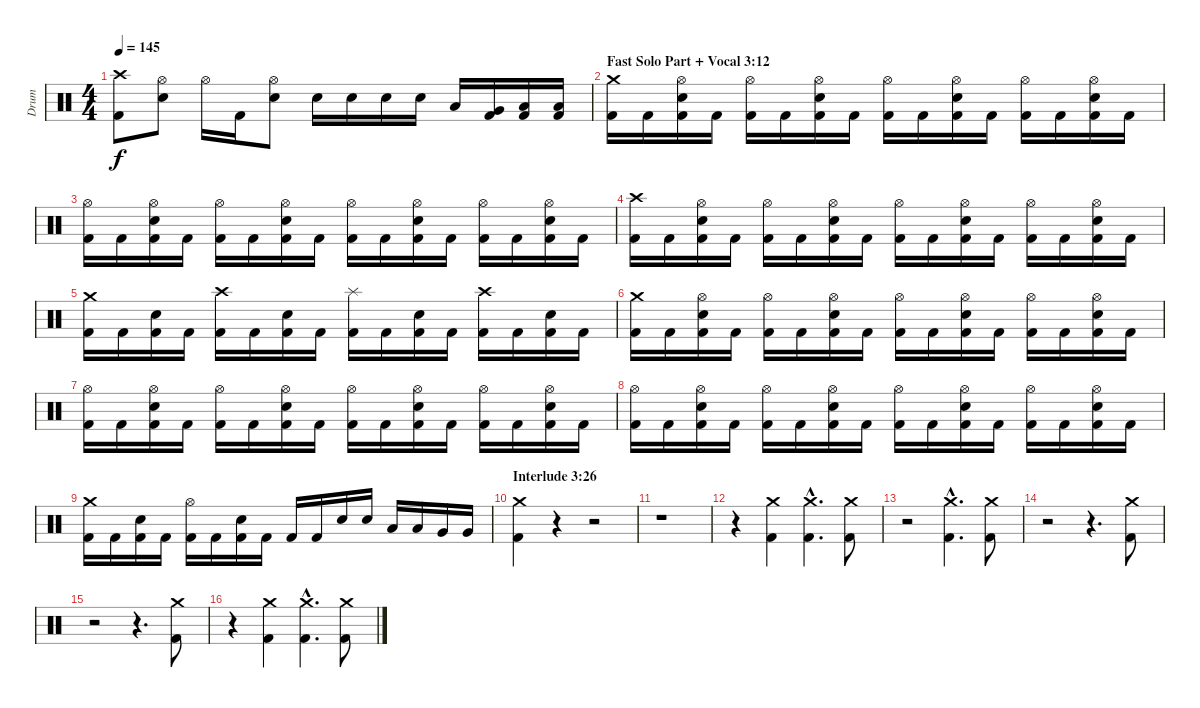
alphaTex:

\track ("Drum" "Drum") {instrument percussion}
\staff {score}
\articulation defaults
\ts (4 4)
\tempo 145
\clef neutral
\ks c
("Crash high (hit)" "Kick (hit) 2").8{dy f} ("Hi-Hat (open)" "Snare (hit) 2").8 "Hi-Hat (open)".16 "Kick (hit) 2".16 ("Hi-Hat (open)" "Snare (hit) 2").8 "Snare (hit) 2".16 "Snare (hit) 2".16 "Snare (hit) 2".16 "Snare (hit) 2".16 "Low Tom (hit)".16 ("Very Low Tom (hit)" "Kick (hit) 2").16 ("Low Floor Tom (hit)" "Kick (hit) 2").16 ("Low Floor Tom (hit)" "Kick (hit) 2").16 |
\section ("" "Fast Solo Part + Vocal 3:12")
("Crash medium (hit)" "Kick (hit) 2").16 "Kick (hit) 2".16 ("Hi-Hat (open)" "Snare (hit) 2" "Kick (hit) 2").16 "Kick (hit) 2".16 ("Hi-Hat (open)" "Kick (hit) 2").16 "Kick (hit) 2".16 ("Hi-Hat (open)" "Snare (hit) 2" "Kick (hit) 2").16 "Kick (hit) 2".16 ("Hi-Hat (open)" "Kick (hit) 2").16 "Kick (hit) 2".16 ("Hi-Hat (open)" "Snare (hit) 2" "Kick (hit) 2").16 "Kick (hit) 2".16 ("Hi-Hat (open)" "Kick (hit) 2").16 "Kick (hit) 2".16 ("Hi-Hat (open)" "Snare (hit) 2" "Kick (hit) 2").16 "Kick (hit) 2".16 |
("Hi-Hat (open)" "Kick (hit) 2").16 "Kick (hit) 2".16 ("Hi-Hat (open)" "Snare (hit) 2" "Kick (hit) 2").16 "Kick (hit) 2".16 ("Hi-Hat (open)" "Kick (hit) 2").16 "Kick (hit) 2".16 ("Hi-Hat (open)" "Snare (hit) 2" "Kick (hit) 2").16 "Kick (hit) 2".16 ("Hi-Hat (open)" "Kick (hit) 2").16 "Kick (hit) 2".16 ("Hi-Hat (open)" "Snare (hit) 2" "Kick (hit) 2").16 "Kick (hit) 2".16 ("Hi-Hat (open)" "Kick (hit) 2").16 "Kick (hit) 2".16 ("Hi-Hat (open)" "Snare (hit) 2" "Kick (hit) 2").16 "Kick (hit) 2".16 |
("Crash high (hit)" "Kick (hit) 2").16 "Kick (hit) 2".16 ("Hi-Hat (open)" "Snare (hit) 2" "Kick (hit) 2").16 "Kick (hit) 2".16 ("Hi-Hat (open)" "Kick (hit) 2").16 "Kick (hit) 2".16 ("Hi-Hat (open)" "Snare (hit) 2" "Kick (hit) 2").16 "Kick (hit) 2".16 ("Hi-Hat (open)" "Kick (hit) 2").16 "Kick (hit) 2".16 ("Hi-Hat (open)" "Snare (hit) 2" "Kick (hit) 2").16 "Kick (hit) 2".16 ("Hi-Hat (open)" "Kick (hit) 2").16 "Kick (hit) 2".16 ("Hi-Hat (open)" "Snare (hit) 2" "Kick (hit) 2").16 "Kick (hit) 2".16 |
("Crash medium (hit)" "Kick (hit) 2").16 "Kick (hit) 2".16 ("Snare (hit) 2" "Kick (hit) 2").16 "Kick (hit) 2".16 ("Crash high (hit)" "Kick (hit) 2").16 "Kick (hit) 2".16 ("Snare (hit) 2" "Kick (hit) 2").16 "Kick (hit) 2".16 ("Splash (hit)" "Kick (hit) 2").16 "Kick (hit) 2".16 ("Snare (hit) 2" "Kick (hit) 2").16 "Kick (hit) 2".16 ("Crash high (hit)" "Kick (hit) 2").16 "Kick (hit) 2".16 ("Snare (hit) 2" "Kick (hit) 2").16 "Kick (hit) 2".16 |
("Crash medium (hit)" "Kick (hit) 2").16 "Kick (hit) 2".16 ("Hi-Hat (open)" "Snare (hit) 2" "Kick (hit) 2").16 "Kick (hit) 2".16 ("Hi-Hat (open)" "Kick (hit) 2").16 "Kick (hit) 2".16 ("Hi-Hat (open)" "Snare (hit) 2" "Kick (hit) 2").16 "Kick (hit) 2".16 ("Hi-Hat (open)" "Kick (hit) 2").16 "Kick (hit) 2".16 ("Hi-Hat (open)" "Snare (hit) 2" "Kick (hit) 2").16 "Kick (hit) 2".16 ("Hi-Hat (open)" "Kick (hit) 2").16 "Kick (hit) 2".16 ("Hi-Hat (open)" "Snare (hit) 2" "Kick (hit) 2").16 "Kick (hit) 2".16 |
("Hi-Hat (open)" "Kick (hit) 2").16 "Kick (hit) 2".16 ("Hi-Hat (open)" "Snare (hit) 2" "Kick (hit) 2").16 "Kick (hit) 2".16 ("Hi-Hat (open)" "Kick (hit) 2").16 "Kick (hit) 2".16 ("Hi-Hat (open)" "Snare (hit) 2" "Kick (hit) 2").16 "Kick (hit) 2".16 ("Hi-Hat (open)" "Kick (hit) 2").16 "Kick (hit) 2".16 ("Hi-Hat (open)" "Snare (hit) 2" "Kick (hit) 2").16 "Kick (hit) 2".16 ("Hi-Hat (open)" "Kick (hit) 2").16 "Kick (hit) 2".16 ("Hi-Hat (open)" "Snare (hit) 2" "Kick (hit) 2").16 "Kick (hit) 2".16 |
("Hi-Hat (open)" "Kick (hit) 2").16 "Kick (hit) 2".16 ("Hi-Hat (open)" "Snare (hit) 2" "Kick (hit) 2").16 "Kick (hit) 2".16 ("Hi-Hat (open)" "Kick (hit) 2").16 "Kick (hit) 2".16 ("Hi-Hat (open)" "Snare (hit) 2" "Kick (hit) 2").16 "Kick (hit) 2".16 ("Hi-Hat (open)" "Kick (hit) 2").16 "Kick (hit) 2".16 ("Hi-Hat (open)" "Snare (hit) 2" "Kick (hit) 2").16 "Kick (hit) 2".16 ("Hi-Hat (open)" "Kick (hit) 2").16 "Kick (hit) 2".16 ("Hi-Hat (open)" "Snare (hit) 2" "Kick (hit) 2").16 "Kick (hit) 2".16 |
("Crash medium (hit)" "Kick (hit) 2").16 "Kick (hit) 2".16 ("Snare (hit) 2" "Kick (hit) 2").16 "Kick (hit) 2".16 ("Hi-Hat (open)" "Kick (hit) 2").16 "Kick (hit) 2".16 ("Snare (hit) 2" "Kick (hit) 2").16 "Kick (hit) 2".16 "Kick (hit) 2".16 "Kick (hit) 2".16 "Snare (hit) 2".16 "Snare (hit) 2".16 "Low Tom (hit)".16 "Low Tom (hit)".16 "Very Low Tom (hit)".16 "Very Low Tom (hit)".16 |
\section ("" "Interlude 3:26")
("Crash medium (hit)" "Kick (hit) 2").4 r.4 r.2 |
r.1 |
r.4 ("Crash medium (hit)" "Kick (hit) 2").4 ("Crash medium (hit)"{hac} "Kick (hit) 2"{hac}).4{d} ("Crash medium (hit)" "Kick (hit) 2").8 |
r.2 ("Crash medium (hit)"{hac} "Kick (hit) 2"{hac}).4{d} ("Crash medium (hit)" "Kick (hit) 2").8 |
r.2 r.4{d} ("Crash medium (hit)" "Kick (hit) 2").8 |
r.2 r.4{d} ("Crash medium (hit)" "Kick (hit) 2").8 |
r.4 ("Crash medium (hit)" "Kick (hit) 2").4 ("Crash medium (hit)"{hac} "Kick (hit) 2"{hac}).4{d} ("Crash medium (hit)" "Kick (hit) 2").8
